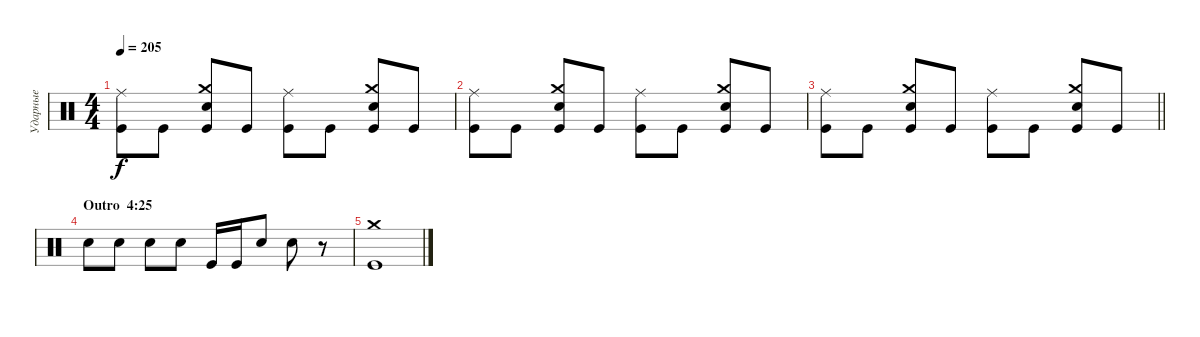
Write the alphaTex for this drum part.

\track ("Ударные" "Ударные") {instrument percussion}
\staff {score}
\articulation defaults
\ts (4 4)
\tempo 205
\clef neutral
\ks c
("Ride (middle)" "Kick (hit)").8{dy f} "Kick (hit)".8 ("Crash medium (hit)" "Snare (hit) 2" "Kick (hit)").8 "Kick (hit)".8 ("Ride (middle)" "Kick (hit)").8 "Kick (hit)".8 ("Crash medium (hit)" "Snare (hit) 2" "Kick (hit)").8 "Kick (hit)".8 |
("Ride (middle)" "Kick (hit)").8 "Kick (hit)".8 ("Crash medium (hit)" "Snare (hit) 2" "Kick (hit)").8 "Kick (hit)".8 ("Ride (middle)" "Kick (hit)").8 "Kick (hit)".8 ("Crash medium (hit)" "Snare (hit) 2" "Kick (hit)").8 "Kick (hit)".8 |
\barLineRight lightlight
("Ride (middle)" "Kick (hit)").8 "Kick (hit)".8 ("Crash medium (hit)" "Snare (hit) 2" "Kick (hit)").8 "Kick (hit)".8 ("Ride (middle)" "Kick (hit)").8 "Kick (hit)".8 ("Crash medium (hit)" "Snare (hit) 2" "Kick (hit)").8 "Kick (hit)".8 |
\section ("" "Outro  4:25")
"Snare (hit) 2".8 "Snare (hit) 2".8 "Snare (hit) 2".8 "Snare (hit) 2".8 "Kick (hit)".16 "Kick (hit)".16 "Snare (hit) 2".8 "Snare (hit) 2".8 r.8 |
("Crash medium (hit)" "Kick (hit)").1
